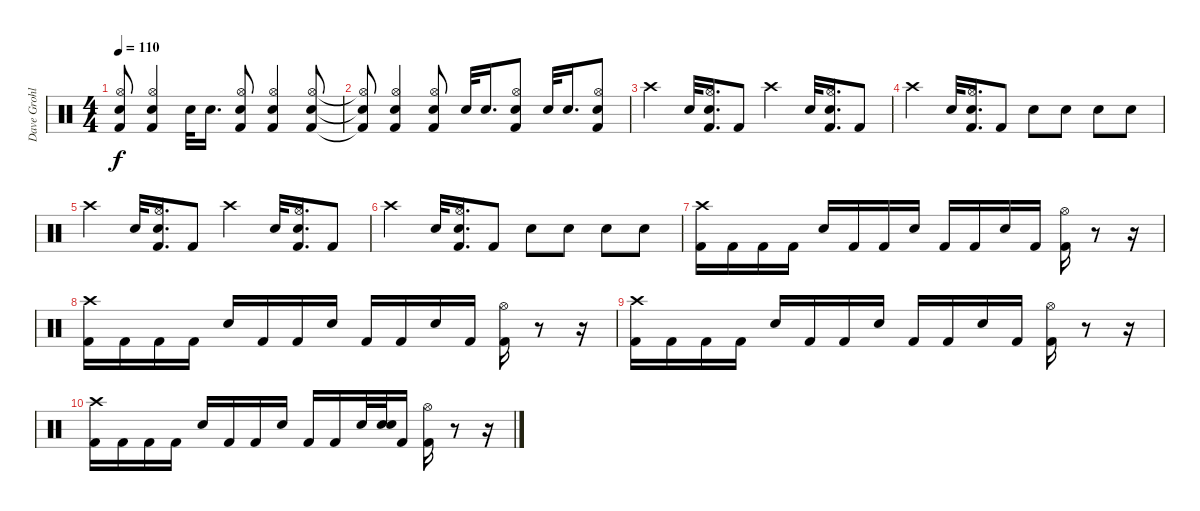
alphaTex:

\track ("Dave Grohl" "Dave Grohl") {instrument percussion}
\staff {score}
\articulation defaults
\ts (4 4)
\tempo 110
\clef neutral
\ks c
("Snare (hit) 2" "Hi-Hat (open)" "Kick (hit) 2").8{dy f} ("Snare (hit) 2" "Hi-Hat (open)" "Kick (hit) 2").4 "Snare (hit) 2".32 "Snare (hit) 2".16{d} ("Snare (hit) 2" "Hi-Hat (open)" "Kick (hit) 2").8 ("Snare (hit) 2" "Hi-Hat (open)" "Kick (hit) 2").4 ("Snare (hit) 2" "Hi-Hat (open)" "Kick (hit) 2").8 |
("Snare (hit) 2"{t} "Hi-Hat (open)"{t} "Kick (hit) 2"{t}).8 ("Snare (hit) 2" "Hi-Hat (open)" "Kick (hit) 2").4 ("Snare (hit) 2" "Hi-Hat (open)" "Kick (hit) 2").8 "Snare (hit) 2".32 "Snare (hit) 2".16{d} ("Snare (hit) 2" "Hi-Hat (open)" "Kick (hit) 2").8 "Snare (hit) 2".32 "Snare (hit) 2".16{d} ("Snare (hit) 2" "Hi-Hat (open)" "Kick (hit) 2").8 |
"Crash high (hit)".4 "Snare (hit) 2".32 ("Snare (hit) 2" "Hi-Hat (open)" "Kick (hit) 2").16{d} "Kick (hit) 2".8 "Crash high (hit)".4 "Snare (hit) 2".32 ("Snare (hit) 2" "Hi-Hat (open)" "Kick (hit) 2").16{d} "Kick (hit) 2".8 |
"Crash high (hit)".4 "Snare (hit) 2".32 ("Snare (hit) 2" "Hi-Hat (open)" "Kick (hit) 2").16{d} "Kick (hit) 2".8 "Snare (hit) 2".8 "Electric Snare (hit)".8 "Electric Snare (hit)".8 "Electric Snare (hit)".8 |
"Crash high (hit)".4 "Snare (hit) 2".32 ("Snare (hit) 2" "Hi-Hat (open)" "Kick (hit) 2").16{d} "Kick (hit) 2".8 "Crash high (hit)".4 "Snare (hit) 2".32 ("Snare (hit) 2" "Hi-Hat (open)" "Kick (hit) 2").16{d} "Kick (hit) 2".8 |
"Crash high (hit)".4 "Snare (hit) 2".32 ("Snare (hit) 2" "Hi-Hat (open)" "Kick (hit) 2").16{d} "Kick (hit) 2".8 "Snare (hit) 2".8 "Electric Snare (hit)".8 "Electric Snare (hit)".8 "Electric Snare (hit)".8 |
("Crash high (hit)" "Kick (hit) 2").16 "Kick (hit) 2".16 "Kick (hit) 2".16 "Kick (hit) 2".16 "Snare (hit) 2".16 "Kick (hit) 2".16 "Kick (hit) 2".16 "Snare (hit) 2".16 "Kick (hit) 2".16 "Kick (hit) 2".16 "Snare (hit) 2".16 "Kick (hit) 2".16 ("Hi-Hat (open)" "Kick (hit) 2").16 r.8 r.16 |
("Crash high (hit)" "Kick (hit) 2").16 "Kick (hit) 2".16 "Kick (hit) 2".16 "Kick (hit) 2".16 "Snare (hit) 2".16 "Kick (hit) 2".16 "Kick (hit) 2".16 "Snare (hit) 2".16 "Kick (hit) 2".16 "Kick (hit) 2".16 "Snare (hit) 2".16 "Kick (hit) 2".16 ("Hi-Hat (open)" "Kick (hit) 2").16 r.8 r.16 |
("Crash high (hit)" "Kick (hit) 2").16 "Kick (hit) 2".16 "Kick (hit) 2".16 "Kick (hit) 2".16 "Snare (hit) 2".16 "Kick (hit) 2".16 "Kick (hit) 2".16 "Snare (hit) 2".16 "Kick (hit) 2".16 "Kick (hit) 2".16 "Snare (hit) 2".16 "Kick (hit) 2".16 ("Hi-Hat (open)" "Kick (hit) 2").16 r.8 r.16 |
("Crash high (hit)" "Kick (hit) 2").16 "Kick (hit) 2".16 "Kick (hit) 2".16 "Kick (hit) 2".16 "Snare (hit) 2".16 "Kick (hit) 2".16 "Kick (hit) 2".16 "Snare (hit) 2".16 "Kick (hit) 2".16 "Kick (hit) 2".16 "Snare (hit) 2".32 ("Snare (hit) 2" "Snare (hit) 2").32 "Kick (hit) 2".16 ("Hi-Hat (open)" "Kick (hit) 2").16 r.8 r.16
